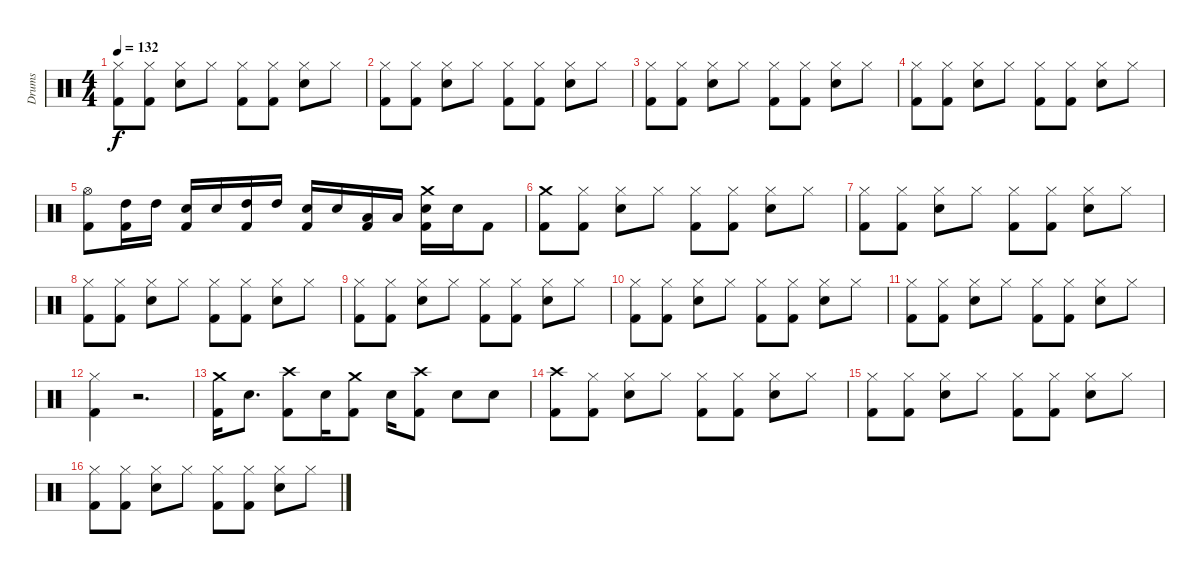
\track ("Drums" "Drums") {instrument percussion}
\staff {score}
\articulation defaults
\ts (4 4)
\tempo 132
\clef neutral
\ks c
("Kick (hit) 2" "Hi-Hat (closed)").8{dy f} ("Kick (hit) 2" "Hi-Hat (closed)").8 ("Snare (hit) 2" "Hi-Hat (closed)").8 "Hi-Hat (closed)".8 ("Kick (hit) 2" "Hi-Hat (closed)").8 ("Kick (hit) 2" "Hi-Hat (closed)").8 ("Snare (hit) 2" "Hi-Hat (closed)").8 "Hi-Hat (closed)".8 |
("Kick (hit) 2" "Hi-Hat (closed)").8 ("Kick (hit) 2" "Hi-Hat (closed)").8 ("Snare (hit) 2" "Hi-Hat (closed)").8 "Hi-Hat (closed)".8 ("Kick (hit) 2" "Hi-Hat (closed)").8 ("Kick (hit) 2" "Hi-Hat (closed)").8 ("Snare (hit) 2" "Hi-Hat (closed)").8 "Hi-Hat (closed)".8 |
("Kick (hit) 2" "Hi-Hat (closed)").8 ("Kick (hit) 2" "Hi-Hat (closed)").8 ("Snare (hit) 2" "Hi-Hat (closed)").8 "Hi-Hat (closed)".8 ("Kick (hit) 2" "Hi-Hat (closed)").8 ("Kick (hit) 2" "Hi-Hat (closed)").8 ("Snare (hit) 2" "Hi-Hat (closed)").8 "Hi-Hat (closed)".8 |
("Kick (hit) 2" "Hi-Hat (closed)").8 ("Kick (hit) 2" "Hi-Hat (closed)").8 ("Snare (hit) 2" "Hi-Hat (closed)").8 "Hi-Hat (closed)".8 ("Kick (hit) 2" "Hi-Hat (closed)").8 ("Kick (hit) 2" "Hi-Hat (closed)").8 ("Snare (hit) 2" "Hi-Hat (closed)").8 "Hi-Hat (closed)".8 |
("Kick (hit) 2" "Hi-Hat (open)").8 ("Kick (hit) 2" "High Tom (hit)").16 "High Tom (hit)".16 ("Kick (hit) 2" "Snare (hit) 2").16 "Snare (hit) 2".16 ("Kick (hit) 2" "High Tom (hit)").16 "High Tom (hit)".16 ("Kick (hit) 2" "Snare (hit) 2").16 "Snare (hit) 2".16 ("Kick (hit) 2" "Low Tom (hit)").16 "Low Tom (hit)".16 ("Kick (hit) 2" "Snare (hit) 2" "Crash medium (hit)").16 "Snare (hit) 2".16 "Kick (hit) 2".8 |
("Kick (hit) 2" "Crash medium (hit)").8 ("Kick (hit) 2" "Hi-Hat (closed)").8 ("Snare (hit) 2" "Hi-Hat (closed)").8 "Hi-Hat (closed)".8 ("Kick (hit) 2" "Hi-Hat (closed)").8 ("Kick (hit) 2" "Hi-Hat (closed)").8 ("Snare (hit) 2" "Hi-Hat (closed)").8 "Hi-Hat (closed)".8 |
("Kick (hit) 2" "Hi-Hat (closed)").8 ("Kick (hit) 2" "Hi-Hat (closed)").8 ("Snare (hit) 2" "Hi-Hat (closed)").8 "Hi-Hat (closed)".8 ("Kick (hit) 2" "Hi-Hat (closed)").8 ("Kick (hit) 2" "Hi-Hat (closed)").8 ("Snare (hit) 2" "Hi-Hat (closed)").8 "Hi-Hat (closed)".8 |
("Kick (hit) 2" "Hi-Hat (closed)").8 ("Kick (hit) 2" "Hi-Hat (closed)").8 ("Snare (hit) 2" "Hi-Hat (closed)").8 "Hi-Hat (closed)".8 ("Kick (hit) 2" "Hi-Hat (closed)").8 ("Kick (hit) 2" "Hi-Hat (closed)").8 ("Snare (hit) 2" "Hi-Hat (closed)").8 "Hi-Hat (closed)".8 |
("Kick (hit) 2" "Hi-Hat (closed)").8 ("Kick (hit) 2" "Hi-Hat (closed)").8 ("Snare (hit) 2" "Hi-Hat (closed)").8 "Hi-Hat (closed)".8 ("Kick (hit) 2" "Hi-Hat (closed)").8 ("Kick (hit) 2" "Hi-Hat (closed)").8 ("Snare (hit) 2" "Hi-Hat (closed)").8 "Hi-Hat (closed)".8 |
("Kick (hit) 2" "Hi-Hat (closed)").8 ("Kick (hit) 2" "Hi-Hat (closed)").8 ("Snare (hit) 2" "Hi-Hat (closed)").8 "Hi-Hat (closed)".8 ("Kick (hit) 2" "Hi-Hat (closed)").8 ("Kick (hit) 2" "Hi-Hat (closed)").8 ("Snare (hit) 2" "Hi-Hat (closed)").8 "Hi-Hat (closed)".8 |
("Kick (hit) 2" "Hi-Hat (closed)").8 ("Kick (hit) 2" "Hi-Hat (closed)").8 ("Snare (hit) 2" "Hi-Hat (closed)").8 "Hi-Hat (closed)".8 ("Kick (hit) 2" "Hi-Hat (closed)").8 ("Kick (hit) 2" "Hi-Hat (closed)").8 ("Snare (hit) 2" "Hi-Hat (closed)").8 "Hi-Hat (closed)".8 |
("Kick (hit) 2" "Hi-Hat (closed)").4 r.2{d} |
("Kick (hit) 2" "Crash medium (hit)").16 "Snare (hit) 2".8{d} ("Kick (hit) 2" "Crash high (hit)").8 "Snare (hit) 2".16 ("Kick (hit) 2" "Crash medium (hit)").8 "Snare (hit) 2".16 ("Kick (hit) 2" "Crash high (hit)").8 "Snare (hit) 2".8 "Snare (hit) 2".8 |
("Kick (hit) 2" "Crash high (hit)").8 ("Kick (hit) 2" "Hi-Hat (closed)").8 ("Snare (hit) 2" "Hi-Hat (closed)").8 "Hi-Hat (closed)".8 ("Kick (hit) 2" "Hi-Hat (closed)").8 ("Kick (hit) 2" "Hi-Hat (closed)").8 ("Snare (hit) 2" "Hi-Hat (closed)").8 "Hi-Hat (closed)".8 |
("Kick (hit) 2" "Hi-Hat (closed)").8 ("Kick (hit) 2" "Hi-Hat (closed)").8 ("Snare (hit) 2" "Hi-Hat (closed)").8 "Hi-Hat (closed)".8 ("Kick (hit) 2" "Hi-Hat (closed)").8 ("Kick (hit) 2" "Hi-Hat (closed)").8 ("Snare (hit) 2" "Hi-Hat (closed)").8 "Hi-Hat (closed)".8 |
("Kick (hit) 2" "Hi-Hat (closed)").8 ("Kick (hit) 2" "Hi-Hat (closed)").8 ("Snare (hit) 2" "Hi-Hat (closed)").8 "Hi-Hat (closed)".8 ("Kick (hit) 2" "Hi-Hat (closed)").8 ("Kick (hit) 2" "Hi-Hat (closed)").8 ("Snare (hit) 2" "Hi-Hat (closed)").8 "Hi-Hat (closed)".8
